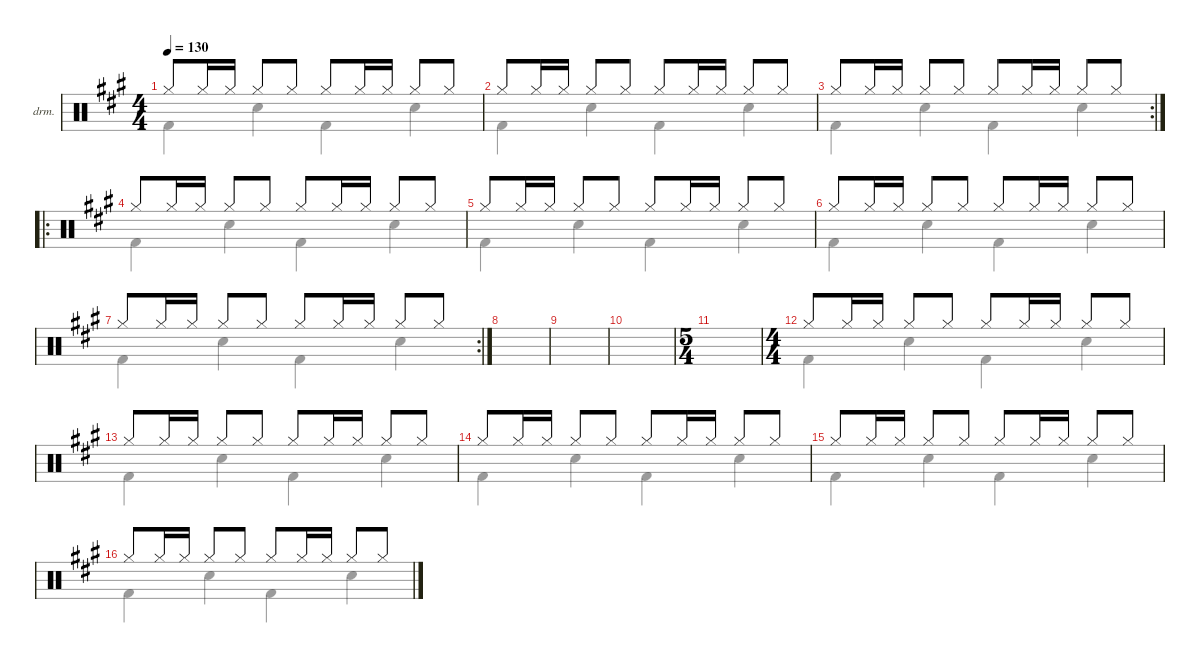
\defaultSystemsLayout 4
\hideDynamics
\bracketExtendMode nobrackets
\firstSystemTrackNameOrientation horizontal
\otherSystemsTrackNameOrientation horizontal
\track ("  " "drm.") {instrument percussion}
\staff {score}
\articulation defaults
\voice
\ts (4 4)
\tempo 130
\clef neutral
\ks f#minor "Hi-Hat (closed)"{acc forcenatural}.8{dy mf beam Up} "Hi-Hat (closed)"{acc forcenatural}.16{beam Up} "Hi-Hat (closed)"{acc forcenatural}.16{beam Up} "Hi-Hat (closed)"{acc forcenatural}.8{beam Up} "Hi-Hat (closed)"{acc forcenatural}.8{beam Up} "Hi-Hat (closed)"{acc forcenatural}.8{beam Up} "Hi-Hat (closed)"{acc forcenatural}.16{beam Up} "Hi-Hat (closed)"{acc forcenatural}.16{beam Up} "Hi-Hat (closed)"{acc forcenatural}.8{beam Up} "Hi-Hat (closed)"{acc forcenatural}.8{beam Up}
|
"Hi-Hat (closed)"{acc forcenatural}.8{beam Up} "Hi-Hat (closed)"{acc forcenatural}.16{beam Up} "Hi-Hat (closed)"{acc forcenatural}.16{beam Up} "Hi-Hat (closed)"{acc forcenatural}.8{beam Up} "Hi-Hat (closed)"{acc forcenatural}.8{beam Up} "Hi-Hat (closed)"{acc forcenatural}.8{beam Up} "Hi-Hat (closed)"{acc forcenatural}.16{beam Up} "Hi-Hat (closed)"{acc forcenatural}.16{beam Up} "Hi-Hat (closed)"{acc forcenatural}.8{beam Up} "Hi-Hat (closed)"{acc forcenatural}.8{beam Up} |
\rc 2 "Hi-Hat (closed)"{acc forcenatural}.8{beam Up} "Hi-Hat (closed)"{acc forcenatural}.16{beam Up} "Hi-Hat (closed)"{acc forcenatural}.16{beam Up} "Hi-Hat (closed)"{acc forcenatural}.8{beam Up} "Hi-Hat (closed)"{acc forcenatural}.8{beam Up} "Hi-Hat (closed)"{acc forcenatural}.8{beam Up} "Hi-Hat (closed)"{acc forcenatural}.16{beam Up} "Hi-Hat (closed)"{acc forcenatural}.16{beam Up} "Hi-Hat (closed)"{acc forcenatural}.8{beam Up} "Hi-Hat (closed)"{acc forcenatural}.8{beam Up}
|
\ro "Hi-Hat (closed)"{acc forcenatural}.8{beam Up} "Hi-Hat (closed)"{acc forcenatural}.16{beam Up} "Hi-Hat (closed)"{acc forcenatural}.16{beam Up} "Hi-Hat (closed)"{acc forcenatural}.8{beam Up} "Hi-Hat (closed)"{acc forcenatural}.8{beam Up} "Hi-Hat (closed)"{acc forcenatural}.8{beam Up} "Hi-Hat (closed)"{acc forcenatural}.16{beam Up} "Hi-Hat (closed)"{acc forcenatural}.16{beam Up} "Hi-Hat (closed)"{acc forcenatural}.8{beam Up} "Hi-Hat (closed)"{acc forcenatural}.8{beam Up}
|
"Hi-Hat (closed)"{acc forcenatural}.8{beam Up} "Hi-Hat (closed)"{acc forcenatural}.16{beam Up} "Hi-Hat (closed)"{acc forcenatural}.16{beam Up} "Hi-Hat (closed)"{acc forcenatural}.8{beam Up} "Hi-Hat (closed)"{acc forcenatural}.8{beam Up} "Hi-Hat (closed)"{acc forcenatural}.8{beam Up} "Hi-Hat (closed)"{acc forcenatural}.16{beam Up} "Hi-Hat (closed)"{acc forcenatural}.16{beam Up} "Hi-Hat (closed)"{acc forcenatural}.8{beam Up} "Hi-Hat (closed)"{acc forcenatural}.8{beam Up} |
"Hi-Hat (closed)"{acc forcenatural}.8{beam Up} "Hi-Hat (closed)"{acc forcenatural}.16{beam Up} "Hi-Hat (closed)"{acc forcenatural}.16{beam Up} "Hi-Hat (closed)"{acc forcenatural}.8{beam Up} "Hi-Hat (closed)"{acc forcenatural}.8{beam Up} "Hi-Hat (closed)"{acc forcenatural}.8{beam Up} "Hi-Hat (closed)"{acc forcenatural}.16{beam Up} "Hi-Hat (closed)"{acc forcenatural}.16{beam Up} "Hi-Hat (closed)"{acc forcenatural}.8{beam Up} "Hi-Hat (closed)"{acc forcenatural}.8{beam Up} |
\rc 2 "Hi-Hat (closed)"{acc forcenatural}.8{beam Up} "Hi-Hat (closed)"{acc forcenatural}.16{beam Up} "Hi-Hat (closed)"{acc forcenatural}.16{beam Up} "Hi-Hat (closed)"{acc forcenatural}.8{beam Up} "Hi-Hat (closed)"{acc forcenatural}.8{beam Up} "Hi-Hat (closed)"{acc forcenatural}.8{beam Up} "Hi-Hat (closed)"{acc forcenatural}.16{beam Up} "Hi-Hat (closed)"{acc forcenatural}.16{beam Up} "Hi-Hat (closed)"{acc forcenatural}.8{beam Up} "Hi-Hat (closed)"{acc forcenatural}.8{beam Up}
|
|
|
|
\ts (5 4)
\beaming (8 6 4)
|
\ts (4 4)
\beaming (8 2 2 2 2)
"Hi-Hat (closed)"{acc forcenatural}.8{beam Up} "Hi-Hat (closed)"{acc forcenatural}.16{beam Up} "Hi-Hat (closed)"{acc forcenatural}.16{beam Up} "Hi-Hat (closed)"{acc forcenatural}.8{beam Up} "Hi-Hat (closed)"{acc forcenatural}.8{beam Up} "Hi-Hat (closed)"{acc forcenatural}.8{beam Up} "Hi-Hat (closed)"{acc forcenatural}.16{beam Up} "Hi-Hat (closed)"{acc forcenatural}.16{beam Up} "Hi-Hat (closed)"{acc forcenatural}.8{beam Up} "Hi-Hat (closed)"{acc forcenatural}.8{beam Up} |
"Hi-Hat (closed)"{acc forcenatural}.8{beam Up} "Hi-Hat (closed)"{acc forcenatural}.16{beam Up} "Hi-Hat (closed)"{acc forcenatural}.16{beam Up} "Hi-Hat (closed)"{acc forcenatural}.8{beam Up} "Hi-Hat (closed)"{acc forcenatural}.8{beam Up} "Hi-Hat (closed)"{acc forcenatural}.8{beam Up} "Hi-Hat (closed)"{acc forcenatural}.16{beam Up} "Hi-Hat (closed)"{acc forcenatural}.16{beam Up} "Hi-Hat (closed)"{acc forcenatural}.8{beam Up} "Hi-Hat (closed)"{acc forcenatural}.8{beam Up} |
"Hi-Hat (closed)"{acc forcenatural}.8{beam Up} "Hi-Hat (closed)"{acc forcenatural}.16{beam Up} "Hi-Hat (closed)"{acc forcenatural}.16{beam Up} "Hi-Hat (closed)"{acc forcenatural}.8{beam Up} "Hi-Hat (closed)"{acc forcenatural}.8{beam Up} "Hi-Hat (closed)"{acc forcenatural}.8{beam Up} "Hi-Hat (closed)"{acc forcenatural}.16{beam Up} "Hi-Hat (closed)"{acc forcenatural}.16{beam Up} "Hi-Hat (closed)"{acc forcenatural}.8{beam Up} "Hi-Hat (closed)"{acc forcenatural}.8{beam Up} |
"Hi-Hat (closed)"{acc forcenatural}.8{beam Up} "Hi-Hat (closed)"{acc forcenatural}.16{beam Up} "Hi-Hat (closed)"{acc forcenatural}.16{beam Up} "Hi-Hat (closed)"{acc forcenatural}.8{beam Up} "Hi-Hat (closed)"{acc forcenatural}.8{beam Up} "Hi-Hat (closed)"{acc forcenatural}.8{beam Up} "Hi-Hat (closed)"{acc forcenatural}.16{beam Up} "Hi-Hat (closed)"{acc forcenatural}.16{beam Up} "Hi-Hat (closed)"{acc forcenatural}.8{beam Up} "Hi-Hat (closed)"{acc forcenatural}.8{beam Up} |
"Hi-Hat (closed)"{acc forcenatural}.8{beam Up} "Hi-Hat (closed)"{acc forcenatural}.16{beam Up} "Hi-Hat (closed)"{acc forcenatural}.16{beam Up} "Hi-Hat (closed)"{acc forcenatural}.8{beam Up} "Hi-Hat (closed)"{acc forcenatural}.8{beam Up} "Hi-Hat (closed)"{acc forcenatural}.8{beam Up} "Hi-Hat (closed)"{acc forcenatural}.16{beam Up} "Hi-Hat (closed)"{acc forcenatural}.16{beam Up} "Hi-Hat (closed)"{acc forcenatural}.8{beam Up} "Hi-Hat (closed)"{acc forcenatural}.8{beam Up}
\voice
\clef neutral
\ottava regular
\simile none
\ks f#minor "Kick (hit) 2"{acc forcenatural}.4{dy mf beam Down} "Snare (hit) 2"{acc forcenatural}.4{beam Down} "Kick (hit) 2"{acc forcenatural}.4{beam Down} "Snare (hit) 2"{acc forcenatural}.4{beam Down}
|
"Kick (hit) 2"{acc forcenatural}.4{beam Down} "Snare (hit) 2"{acc forcenatural}.4{beam Down} "Kick (hit) 2"{acc forcenatural}.4{beam Down} "Snare (hit) 2"{acc forcenatural}.4{beam Down} |
"Kick (hit) 2"{acc forcenatural}.4{beam Down} "Snare (hit) 2"{acc forcenatural}.4{beam Down} "Kick (hit) 2"{acc forcenatural}.4{beam Down} "Snare (hit) 2"{acc forcenatural}.4{beam Down} |
"Kick (hit) 2"{acc forcenatural}.4{beam Down} "Snare (hit) 2"{acc forcenatural}.4{beam Down} "Kick (hit) 2"{acc forcenatural}.4{beam Down} "Snare (hit) 2"{acc forcenatural}.4{beam Down} |
"Kick (hit) 2"{acc forcenatural}.4{beam Down} "Snare (hit) 2"{acc forcenatural}.4{beam Down} "Kick (hit) 2"{acc forcenatural}.4{beam Down} "Snare (hit) 2"{acc forcenatural}.4{beam Down} |
"Kick (hit) 2"{acc forcenatural}.4{beam Down} "Snare (hit) 2"{acc forcenatural}.4{beam Down} "Kick (hit) 2"{acc forcenatural}.4{beam Down} "Snare (hit) 2"{acc forcenatural}.4{beam Down} |
"Kick (hit) 2"{acc forcenatural}.4{beam Down} "Snare (hit) 2"{acc forcenatural}.4{beam Down} "Kick (hit) 2"{acc forcenatural}.4{beam Down} "Snare (hit) 2"{acc forcenatural}.4{beam Down} |
|
|
|
|
"Kick (hit) 2"{acc forcenatural}.4{beam Down} "Snare (hit) 2"{acc forcenatural}.4{beam Down} "Kick (hit) 2"{acc forcenatural}.4{beam Down} "Snare (hit) 2"{acc forcenatural}.4{beam Down} |
"Kick (hit) 2"{acc forcenatural}.4{beam Down} "Snare (hit) 2"{acc forcenatural}.4{beam Down} "Kick (hit) 2"{acc forcenatural}.4{beam Down} "Snare (hit) 2"{acc forcenatural}.4{beam Down} |
"Kick (hit) 2"{acc forcenatural}.4{beam Down} "Snare (hit) 2"{acc forcenatural}.4{beam Down} "Kick (hit) 2"{acc forcenatural}.4{beam Down} "Snare (hit) 2"{acc forcenatural}.4{beam Down} |
"Kick (hit) 2"{acc forcenatural}.4{beam Down} "Snare (hit) 2"{acc forcenatural}.4{beam Down} "Kick (hit) 2"{acc forcenatural}.4{beam Down} "Snare (hit) 2"{acc forcenatural}.4{beam Down} |
"Kick (hit) 2"{acc forcenatural}.4{beam Down} "Snare (hit) 2"{acc forcenatural}.4{beam Down} "Kick (hit) 2"{acc forcenatural}.4{beam Down} "Snare (hit) 2"{acc forcenatural}.4{beam Down}
